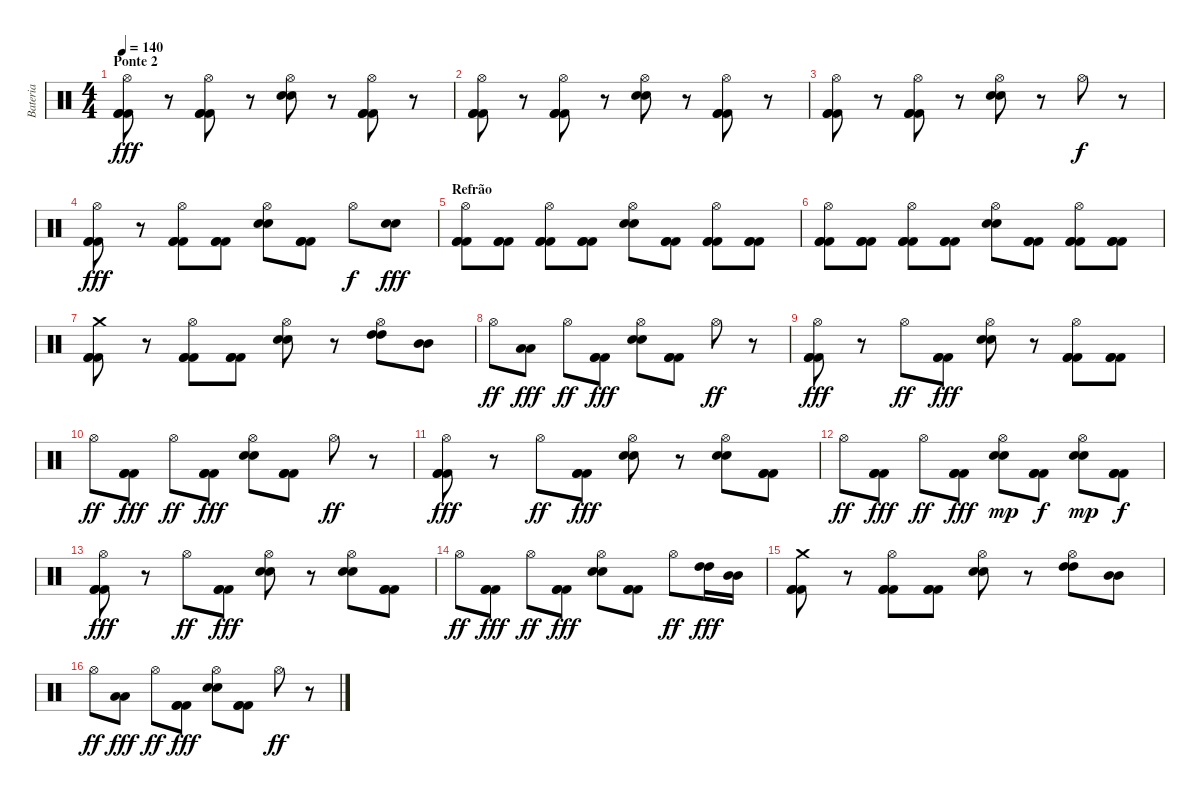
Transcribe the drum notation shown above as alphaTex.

\track ("Bateria" "Bateria") {instrument percussion}
\staff {score}
\articulation defaults
\ts (4 4)
\section ("" "Ponte 2")
\tempo 140
\clef neutral
\ks c
("Hi-Hat (open)" "Kick (hit) 2" "Kick (hit) 2" "Kick (hit) 2").8{dy fff} r.8 ("Hi-Hat (open)" "Kick (hit) 2" "Kick (hit) 2" "Kick (hit) 2").8 r.8 ("Hi-Hat (open)" "Snare (hit) 2" "Snare (hit) 2").8 r.8 ("Hi-Hat (open)" "Kick (hit) 2" "Kick (hit) 2" "Kick (hit) 2").8 r.8 |
("Hi-Hat (open)" "Kick (hit) 2" "Kick (hit) 2" "Kick (hit) 2").8 r.8 ("Hi-Hat (open)" "Kick (hit) 2" "Kick (hit) 2" "Kick (hit) 2").8 r.8 ("Hi-Hat (open)" "Snare (hit) 2" "Snare (hit) 2").8 r.8 ("Hi-Hat (open)" "Kick (hit) 2" "Kick (hit) 2" "Kick (hit) 2").8 r.8 |
("Hi-Hat (open)" "Kick (hit) 2" "Kick (hit) 2" "Kick (hit) 2").8 r.8 ("Hi-Hat (open)" "Kick (hit) 2" "Kick (hit) 2" "Kick (hit) 2").8 r.8 ("Hi-Hat (open)" "Snare (hit) 2" "Snare (hit) 2").8 r.8 "Hi-Hat (open)".8{dy f} r.8 |
("Hi-Hat (open)" "Kick (hit) 2" "Kick (hit) 2" "Kick (hit) 2").8{dy fff} r.8 ("Hi-Hat (open)" "Kick (hit) 2" "Kick (hit) 2" "Kick (hit) 2").8 ("Kick (hit) 2" "Kick (hit) 2" "Kick (hit) 2").8 ("Hi-Hat (open)" "Snare (hit) 2" "Snare (hit) 2").8 ("Kick (hit) 2" "Kick (hit) 2" "Kick (hit) 2").8 "Hi-Hat (open)".8{dy f} ("Snare (hit) 2" "Snare (hit) 2").8{dy fff} |
\section ("" "Refrão")
("Hi-Hat (open)" "Kick (hit) 2" "Kick (hit) 2" "Kick (hit) 2").8 ("Kick (hit) 2" "Kick (hit) 2" "Kick (hit) 2").8 ("Hi-Hat (open)" "Kick (hit) 2" "Kick (hit) 2" "Kick (hit) 2").8 ("Kick (hit) 2" "Kick (hit) 2" "Kick (hit) 2").8 ("Hi-Hat (open)" "Snare (hit) 2" "Snare (hit) 2").8 ("Kick (hit) 2" "Kick (hit) 2" "Kick (hit) 2").8 ("Hi-Hat (open)" "Kick (hit) 2" "Kick (hit) 2" "Kick (hit) 2").8 ("Kick (hit) 2" "Kick (hit) 2" "Kick (hit) 2").8 |
("Hi-Hat (open)" "Kick (hit) 2" "Kick (hit) 2" "Kick (hit) 2").8 ("Kick (hit) 2" "Kick (hit) 2" "Kick (hit) 2").8 ("Hi-Hat (open)" "Kick (hit) 2" "Kick (hit) 2" "Kick (hit) 2").8 ("Kick (hit) 2" "Kick (hit) 2" "Kick (hit) 2").8 ("Hi-Hat (open)" "Snare (hit) 2" "Snare (hit) 2").8 ("Kick (hit) 2" "Kick (hit) 2" "Kick (hit) 2").8 ("Hi-Hat (open)" "Kick (hit) 2" "Kick (hit) 2" "Kick (hit) 2").8 ("Kick (hit) 2" "Kick (hit) 2" "Kick (hit) 2").8 |
("Crash medium (hit)" "Kick (hit) 2" "Kick (hit) 2" "Kick (hit) 2").8 r.8 ("Hi-Hat (open)" "Kick (hit) 2" "Kick (hit) 2" "Kick (hit) 2").8 ("Kick (hit) 2" "Kick (hit) 2" "Kick (hit) 2").8 ("Hi-Hat (open)" "Snare (hit) 2" "Snare (hit) 2").8 r.8 ("Hi-Hat (open)" "High Tom (hit)" "High Tom (hit)").8 ("Mid Tom (hit)" "Mid Tom (hit)").8 |
"Hi-Hat (open)".8{dy ff} ("Low Tom (hit)" "Low Tom (hit)").8{dy fff} "Hi-Hat (open)".8{dy ff} ("Kick (hit) 2" "Kick (hit) 2" "Kick (hit) 2").8{dy fff} ("Hi-Hat (open)" "Snare (hit) 2" "Snare (hit) 2").8 ("Kick (hit) 2" "Kick (hit) 2" "Kick (hit) 2").8 "Hi-Hat (open)".8{dy ff} r.8 |
("Hi-Hat (open)" "Kick (hit) 2" "Kick (hit) 2" "Kick (hit) 2").8{dy fff} r.8 "Hi-Hat (open)".8{dy ff} ("Kick (hit) 2" "Kick (hit) 2" "Kick (hit) 2").8{dy fff} ("Hi-Hat (open)" "Snare (hit) 2" "Snare (hit) 2").8 r.8 ("Hi-Hat (open)" "Kick (hit) 2" "Kick (hit) 2" "Kick (hit) 2").8 ("Kick (hit) 2" "Kick (hit) 2" "Kick (hit) 2").8 |
"Hi-Hat (open)".8{dy ff} ("Kick (hit) 2" "Kick (hit) 2" "Kick (hit) 2").8{dy fff} "Hi-Hat (open)".8{dy ff} ("Kick (hit) 2" "Kick (hit) 2" "Kick (hit) 2").8{dy fff} ("Hi-Hat (open)" "Snare (hit) 2" "Snare (hit) 2").8 ("Kick (hit) 2" "Kick (hit) 2" "Kick (hit) 2").8 "Hi-Hat (open)".8{dy ff} r.8 |
("Hi-Hat (open)" "Kick (hit) 2" "Kick (hit) 2" "Kick (hit) 2").8{dy fff} r.8 "Hi-Hat (open)".8{dy ff} ("Kick (hit) 2" "Kick (hit) 2" "Kick (hit) 2").8{dy fff} ("Hi-Hat (open)" "Snare (hit) 2" "Snare (hit) 2").8 r.8 ("Hi-Hat (open)" "Snare (hit) 2" "Snare (hit) 2").8 ("Kick (hit) 2" "Kick (hit) 2" "Kick (hit) 2").8 |
"Hi-Hat (open)".8{dy ff} ("Kick (hit) 2" "Kick (hit) 2" "Kick (hit) 2").8{dy fff} "Hi-Hat (open)".8{dy ff} ("Kick (hit) 2" "Kick (hit) 2" "Kick (hit) 2").8{dy fff} ("Hi-Hat (open)" "Snare (hit) 2" "Snare (hit) 2").8{dy mp} ("Kick (hit) 2" "Kick (hit) 2" "Kick (hit) 2").8{dy f} ("Hi-Hat (open)" "Snare (hit) 2" "Snare (hit) 2").8{dy mp} ("Kick (hit) 2" "Kick (hit) 2" "Kick (hit) 2").8{dy f} |
("Hi-Hat (open)" "Kick (hit) 2" "Kick (hit) 2" "Kick (hit) 2").8{dy fff} r.8 "Hi-Hat (open)".8{dy ff} ("Kick (hit) 2" "Kick (hit) 2" "Kick (hit) 2").8{dy fff} ("Hi-Hat (open)" "Snare (hit) 2" "Snare (hit) 2").8 r.8 ("Hi-Hat (open)" "Snare (hit) 2" "Snare (hit) 2").8 ("Kick (hit) 2" "Kick (hit) 2" "Kick (hit) 2").8 |
"Hi-Hat (open)".8{dy ff} ("Kick (hit) 2" "Kick (hit) 2" "Kick (hit) 2").8{dy fff} "Hi-Hat (open)".8{dy ff} ("Kick (hit) 2" "Kick (hit) 2" "Kick (hit) 2").8{dy fff} ("Hi-Hat (open)" "Snare (hit) 2" "Snare (hit) 2").8 ("Kick (hit) 2" "Kick (hit) 2" "Kick (hit) 2").8 "Hi-Hat (open)".8{dy ff} ("High Tom (hit)" "High Tom (hit)").16{dy fff} ("Mid Tom (hit)" "Mid Tom (hit)").16 |
("Crash medium (hit)" "Kick (hit) 2" "Kick (hit) 2" "Kick (hit) 2").8 r.8 ("Hi-Hat (open)" "Kick (hit) 2" "Kick (hit) 2" "Kick (hit) 2").8 ("Kick (hit) 2" "Kick (hit) 2" "Kick (hit) 2").8 ("Hi-Hat (open)" "Snare (hit) 2" "Snare (hit) 2").8 r.8 ("Hi-Hat (open)" "High Tom (hit)" "High Tom (hit)").8 ("Mid Tom (hit)" "Mid Tom (hit)").8 |
"Hi-Hat (open)".8{dy ff} ("Low Tom (hit)" "Low Tom (hit)").8{dy fff} "Hi-Hat (open)".8{dy ff} ("Kick (hit) 2" "Kick (hit) 2" "Kick (hit) 2").8{dy fff} ("Hi-Hat (open)" "Snare (hit) 2" "Snare (hit) 2").8 ("Kick (hit) 2" "Kick (hit) 2" "Kick (hit) 2").8 "Hi-Hat (open)".8{dy ff} r.8
